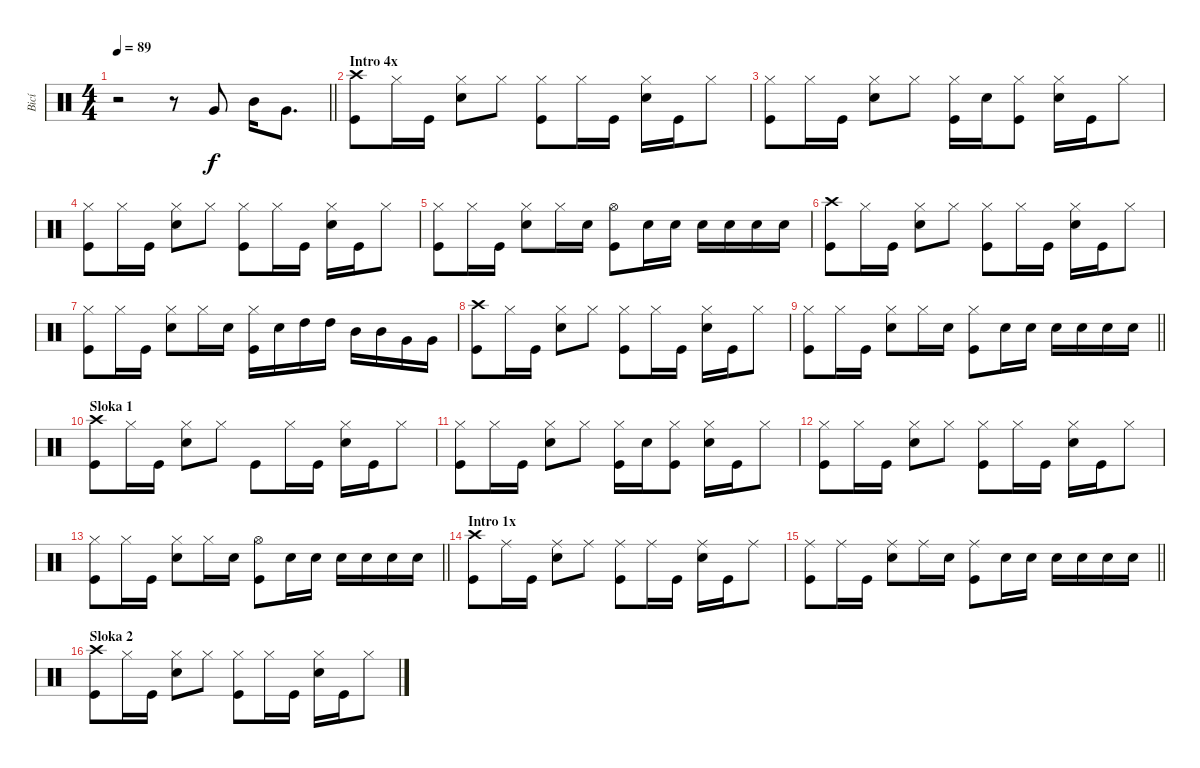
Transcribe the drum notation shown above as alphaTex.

\track ("Bicí" "Bicí") {instrument percussion}
\staff {score}
\articulation defaults
\ts (4 4)
\tempo 89
\clef neutral
\barLineRight lightlight
\ks c
r.2{dy f} r.8 "Very Low Tom (hit)".8{beam Up} "Mid Tom (hit)".16{beam Down} "Very Low Tom (hit)".8{d beam Down} |
\section ("" "Intro 4x")
("Kick (hit)" "Crash high (hit)").8 "Hi-Hat (closed)".16{beam merge} "Kick (hit)".16{beam split} ("Hi-Hat (closed)" "Snare (hit) 2").8 "Hi-Hat (closed)".8 ("Kick (hit)" "Hi-Hat (closed)").8 "Hi-Hat (closed)".16{beam merge} "Kick (hit)".16 ("Hi-Hat (closed)" "Snare (hit) 2").16 "Kick (hit)".16 "Hi-Hat (closed)".8 |
("Kick (hit)" "Hi-Hat (closed)").8 "Hi-Hat (closed)".16{beam merge} "Kick (hit)".16 ("Snare (hit) 2" "Hi-Hat (closed)").8{beam Down} "Hi-Hat (closed)".8{beam Down} ("Kick (hit)" "Hi-Hat (closed)").16{beam Down} "Snare (hit) 2".16{beam Down} ("Hi-Hat (closed)" "Kick (hit)").8{beam Down} ("Hi-Hat (closed)" "Snare (hit) 2").16{beam Down} "Kick (hit)".16{beam Down} "Hi-Hat (closed)".8{beam Down} |
("Kick (hit)" "Hi-Hat (closed)").8 "Hi-Hat (closed)".16{beam merge} "Kick (hit)".16 ("Hi-Hat (closed)" "Snare (hit) 2").8{beam Down} "Hi-Hat (closed)".8{beam Down} ("Kick (hit)" "Hi-Hat (closed)").8 "Hi-Hat (closed)".16{beam merge} "Kick (hit)".16 ("Hi-Hat (closed)" "Snare (hit) 2").16{beam Down} "Kick (hit)".16{beam Down} "Hi-Hat (closed)".8{beam Down} |
("Kick (hit)" "Hi-Hat (closed)").8 "Hi-Hat (closed)".16{beam merge} "Kick (hit)".16 ("Snare (hit) 2" "Hi-Hat (closed)").8 "Hi-Hat (closed)".16 "Snare (hit) 2".16 ("Kick (hit)" "Hi-Hat (open)").8 "Snare (hit) 2".16 "Snare (hit) 2".16 "Snare (hit) 2".16{beam Down} "Snare (hit) 2".16{beam Down} "Snare (hit) 2".16{beam Down} "Snare (hit) 2".16{beam Down} |
("Kick (hit)" "Crash high (hit)").8 "Hi-Hat (closed)".16{beam merge} "Kick (hit)".16 ("Hi-Hat (closed)" "Snare (hit) 2").8{beam Down} "Hi-Hat (closed)".8{beam Down} ("Kick (hit)" "Hi-Hat (closed)").8 "Hi-Hat (closed)".16{beam merge} "Kick (hit)".16 ("Hi-Hat (closed)" "Snare (hit) 2").16{beam Down} "Kick (hit)".16{beam Down} "Hi-Hat (closed)".8{beam Down} |
("Kick (hit)" "Hi-Hat (closed)").8 "Hi-Hat (closed)".16{beam merge} "Kick (hit)".16 ("Snare (hit) 2" "Hi-Hat (closed)").8 "Hi-Hat (closed)".16 "Snare (hit) 2".16 ("Kick (hit)" "Hi-Hat (closed)").16{beam Down} "Snare (hit) 2".16{beam Down} "High Tom (hit)".16{beam Down} "High Tom (hit)".16{beam Down} "Mid Tom (hit)".16{beam Down} "Mid Tom (hit)".16{beam Down} "Very Low Tom (hit)".16{beam Down} "Very Low Tom (hit)".16{beam Down} |
("Kick (hit)" "Crash high (hit)").8 "Hi-Hat (closed)".16{beam merge} "Kick (hit)".16 ("Hi-Hat (closed)" "Snare (hit) 2").8{beam Down} "Hi-Hat (closed)".8{beam Down} ("Kick (hit)" "Hi-Hat (closed)").8 "Hi-Hat (closed)".16{beam merge} "Kick (hit)".16 ("Hi-Hat (closed)" "Snare (hit) 2").16{beam Down} "Kick (hit)".16{beam Down} "Hi-Hat (closed)".8{beam Down} |
\barLineRight lightlight
("Kick (hit)" "Hi-Hat (closed)").8 "Hi-Hat (closed)".16{beam merge} "Kick (hit)".16 ("Snare (hit) 2" "Hi-Hat (closed)").8 "Hi-Hat (closed)".16 "Snare (hit) 2".16 ("Kick (hit)" "Hi-Hat (closed)").8{beam Down} "Snare (hit) 2".16{beam Down} "Snare (hit) 2".16{beam Down} "Snare (hit) 2".16{beam Down} "Snare (hit) 2".16{beam Down} "Snare (hit) 2".16{beam Down} "Snare (hit) 2".16{beam Down} |
\section ("" "Sloka 1")
("Kick (hit)" "Crash high (hit)").8 "Hi-Hat (closed)".16{beam merge} "Kick (hit)".16 ("Hi-Hat (closed)" "Snare (hit) 2").8{beam Down} "Hi-Hat (closed)".8{beam Down} "Kick (hit)".8 "Hi-Hat (closed)".16{beam merge} "Kick (hit)".16 ("Hi-Hat (closed)" "Snare (hit) 2").16{beam Down} "Kick (hit)".16{beam Down} "Hi-Hat (closed)".8{beam Down} |
("Kick (hit)" "Hi-Hat (closed)").8 "Hi-Hat (closed)".16{beam merge} "Kick (hit)".16 ("Snare (hit) 2" "Hi-Hat (closed)").8{beam Down} "Hi-Hat (closed)".8{beam Down} ("Kick (hit)" "Hi-Hat (closed)").16{beam Down} "Snare (hit) 2".16{beam Down} ("Hi-Hat (closed)" "Kick (hit)").8{beam Down} ("Hi-Hat (closed)" "Snare (hit) 2").16{beam Down} "Kick (hit)".16{beam Down} "Hi-Hat (closed)".8{beam Down} |
("Kick (hit)" "Hi-Hat (closed)").8 "Hi-Hat (closed)".16{beam merge} "Kick (hit)".16 ("Hi-Hat (closed)" "Snare (hit) 2").8{beam Down} "Hi-Hat (closed)".8{beam Down} ("Kick (hit)" "Hi-Hat (closed)").8 "Hi-Hat (closed)".16{beam merge} "Kick (hit)".16 ("Hi-Hat (closed)" "Snare (hit) 2").16{beam Down} "Kick (hit)".16{beam Down} "Hi-Hat (closed)".8{beam Down} |
\barLineRight lightlight
("Kick (hit)" "Hi-Hat (closed)").8 "Hi-Hat (closed)".16{beam merge} "Kick (hit)".16 ("Snare (hit) 2" "Hi-Hat (closed)").8 "Hi-Hat (closed)".16 "Snare (hit) 2".16 ("Kick (hit)" "Hi-Hat (open)").8{beam Down} "Snare (hit) 2".16{beam Down} "Snare (hit) 2".16{beam Down} "Snare (hit) 2".16{beam Down} "Snare (hit) 2".16{beam Down} "Snare (hit) 2".16{beam Down} "Snare (hit) 2".16{beam Down} |
\section ("" "Intro 1x")
("Kick (hit)" "Crash high (hit)").8 "Ride (middle)".16{beam merge} "Kick (hit)".16 ("Snare (hit) 2" "Ride (middle)").8{beam Down} "Ride (middle)".8{beam Down} ("Kick (hit)" "Ride (middle)").8 "Ride (middle)".16{beam merge} "Kick (hit)".16 ("Ride (middle)" "Snare (hit) 2").16{beam Down} "Kick (hit)".16{beam Down} "Ride (middle)".8{beam Down} |
\barLineRight lightlight
("Kick (hit)" "Ride (middle)").8 "Ride (middle)".16{beam merge} "Kick (hit)".16 ("Snare (hit) 2" "Ride (middle)").8 "Ride (middle)".16 "Snare (hit) 2".16 ("Kick (hit)" "Ride (middle)").8{beam Down} "Snare (hit) 2".16{beam Down} "Snare (hit) 2".16{beam Down} "Snare (hit) 2".16{beam Down} "Snare (hit) 2".16{beam Down} "Snare (hit) 2".16{beam Down} "Snare (hit) 2".16{beam Down} |
\section ("" "Sloka 2")
("Kick (hit)" "Crash high (hit)").8 "Hi-Hat (closed)".16{beam merge} "Kick (hit)".16 ("Hi-Hat (closed)" "Snare (hit) 2").8{beam Down} "Hi-Hat (closed)".8{beam Down} ("Kick (hit)" "Hi-Hat (closed)").8 "Hi-Hat (closed)".16{beam merge} "Kick (hit)".16 ("Hi-Hat (closed)" "Snare (hit) 2").16{beam Down} "Kick (hit)".16{beam Down} "Hi-Hat (closed)".8{beam Down}
